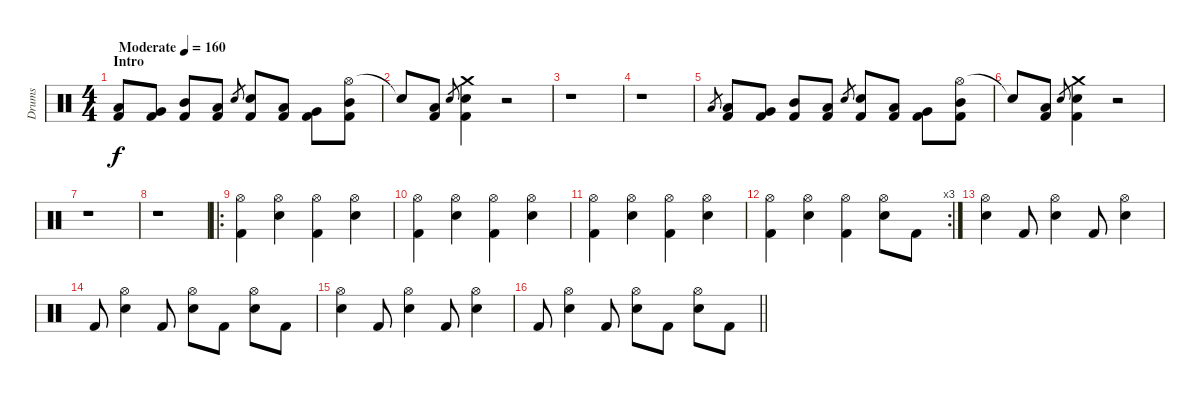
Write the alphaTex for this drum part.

\track ("Drums" "Drums") {instrument percussion}
\staff {score}
\articulation defaults
\ts (4 4)
\section ("" "Intro")
\tempo (160 "Moderate")
\clef neutral
\ks c
("Low Tom (hit)" "Kick (hit) 2").8{dy f} ("Very Low Tom (hit)" "Kick (hit) 2").8 ("Mid Tom (hit)" "Kick (hit) 2").8 ("Low Tom (hit)" "Kick (hit) 2").8 "Electric Snare (hit)".8{gr} ("Electric Snare (hit)" "Kick (hit) 2").8 ("Low Tom (hit)" "Kick (hit) 2").8 ("Very Low Tom (hit)" "Kick (hit) 2").8 ("Hi-Hat (open)" "Mid Tom (hit)" "Kick (hit) 2").8 |
"Snare (hit)"{t}.8 ("Low Floor Tom (hit)" "Kick (hit) 2").8 "Electric Snare (hit)".8{gr} ("Crash medium (hit)" "Electric Snare (hit)" "Kick (hit) 2").4 r.2 |
r.1 |
r.1 |
"Low Tom (hit)".8{gr} ("Low Tom (hit)" "Kick (hit) 2").8 ("Very Low Tom (hit)" "Kick (hit) 2").8 ("Mid Tom (hit)" "Kick (hit) 2").8 ("Low Tom (hit)" "Kick (hit) 2").8 "Electric Snare (hit)".8{gr} ("Electric Snare (hit)" "Kick (hit) 2").8 ("Low Tom (hit)" "Kick (hit) 2").8 ("Very Low Tom (hit)" "Kick (hit) 2").8 ("Hi-Hat (open)" "Mid Tom (hit)" "Kick (hit) 2").8 |
"Snare (hit)"{t}.8 ("Low Floor Tom (hit)" "Kick (hit) 2").8 "Electric Snare (hit)".8{gr} ("Crash medium (hit)" "Electric Snare (hit)" "Kick (hit) 2").4 r.2 |
r.1 |
r.1 |
\ro
("Hi-Hat (open)" "Kick (hit) 2").4 ("Hi-Hat (open)" "Electric Snare (hit)").4 ("Hi-Hat (open)" "Kick (hit) 2").4 ("Hi-Hat (open)" "Electric Snare (hit)").4 |
("Hi-Hat (open)" "Kick (hit) 2").4 ("Hi-Hat (open)" "Electric Snare (hit)").4 ("Hi-Hat (open)" "Kick (hit) 2").4 ("Hi-Hat (open)" "Electric Snare (hit)").4 |
("Hi-Hat (open)" "Kick (hit) 2").4 ("Hi-Hat (open)" "Electric Snare (hit)").4 ("Hi-Hat (open)" "Kick (hit) 2").4 ("Hi-Hat (open)" "Electric Snare (hit)").4 |
\rc 3
("Hi-Hat (open)" "Kick (hit) 2").4 ("Hi-Hat (open)" "Electric Snare (hit)").4 ("Hi-Hat (open)" "Kick (hit) 2").4 ("Hi-Hat (open)" "Electric Snare (hit)").8 "Kick (hit) 2".8 |
("Hi-Hat (open)" "Electric Snare (hit)").4 "Kick (hit) 2".8 ("Hi-Hat (open)" "Electric Snare (hit)").4 "Kick (hit) 2".8 ("Hi-Hat (open)" "Electric Snare (hit)").4 |
"Kick (hit) 2".8 ("Hi-Hat (open)" "Electric Snare (hit)").4 "Kick (hit) 2".8 ("Hi-Hat (open)" "Electric Snare (hit)").8 "Kick (hit) 2".8 ("Hi-Hat (open)" "Electric Snare (hit)").8 "Kick (hit) 2".8 |
("Hi-Hat (open)" "Electric Snare (hit)").4 "Kick (hit) 2".8 ("Hi-Hat (open)" "Electric Snare (hit)").4 "Kick (hit) 2".8 ("Hi-Hat (open)" "Electric Snare (hit)").4 |
\barLineRight lightlight "Kick (hit) 2".8
("Hi-Hat (open)" "Electric Snare (hit)").4 "Kick (hit) 2".8 ("Hi-Hat (open)" "Electric Snare (hit)").8 "Kick (hit) 2".8 ("Hi-Hat (open)" "Electric Snare (hit)").8 "Kick (hit) 2".8
